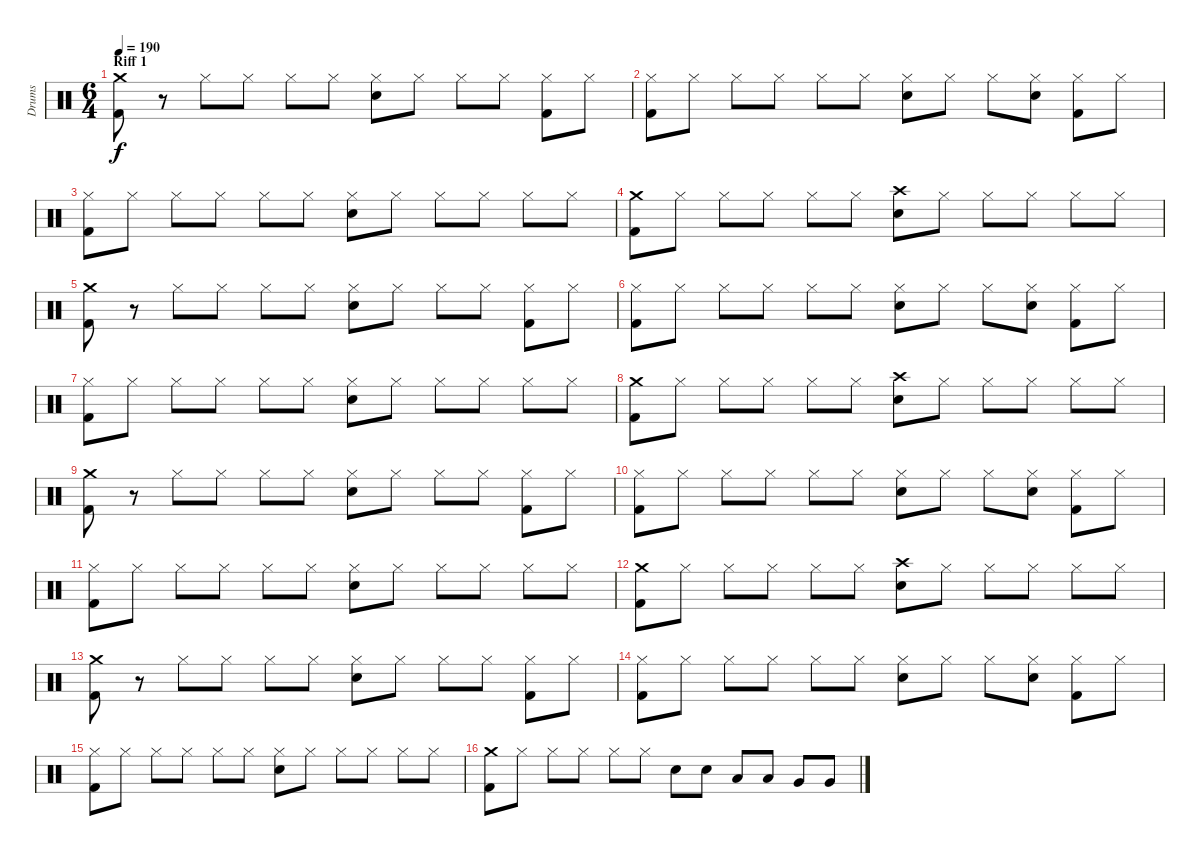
\track ("Drums" "Drums") {instrument percussion}
\staff {score}
\articulation defaults
\ts (6 4)
\section ("" "Riff 1")
\tempo 190
\clef neutral
\ks c
("Crash medium (hit)" "Kick (hit) 2").8{dy f} r.8 "Hi-Hat (closed)".8 "Hi-Hat (closed)".8 "Hi-Hat (closed)".8 "Hi-Hat (closed)".8 ("Hi-Hat (closed)" "Electric Snare (hit)").8 "Hi-Hat (closed)".8 "Hi-Hat (closed)".8 "Hi-Hat (closed)".8 ("Hi-Hat (closed)" "Kick (hit) 2").8 "Hi-Hat (closed)".8 |
("Hi-Hat (closed)" "Kick (hit) 2").8 "Hi-Hat (closed)".8 "Hi-Hat (closed)".8 "Hi-Hat (closed)".8 "Hi-Hat (closed)".8 "Hi-Hat (closed)".8 ("Hi-Hat (closed)" "Electric Snare (hit)").8 "Hi-Hat (closed)".8 "Hi-Hat (closed)".8 ("Hi-Hat (closed)" "Electric Snare (hit)").8 ("Hi-Hat (closed)" "Kick (hit) 2").8 "Hi-Hat (closed)".8 |
("Hi-Hat (closed)" "Kick (hit) 2").8 "Hi-Hat (closed)".8 "Hi-Hat (closed)".8 "Hi-Hat (closed)".8 "Hi-Hat (closed)".8 "Hi-Hat (closed)".8 ("Hi-Hat (closed)" "Electric Snare (hit)").8 "Hi-Hat (closed)".8 "Hi-Hat (closed)".8 "Hi-Hat (closed)".8 "Hi-Hat (closed)".8 "Hi-Hat (closed)".8 |
("Crash medium (hit)" "Kick (hit) 2").8 "Hi-Hat (closed)".8 "Hi-Hat (closed)".8 "Hi-Hat (closed)".8 "Hi-Hat (closed)".8 "Hi-Hat (closed)".8 ("Crash high (hit)" "Electric Snare (hit)").8 "Hi-Hat (closed)".8 "Hi-Hat (closed)".8 "Hi-Hat (closed)".8 "Hi-Hat (closed)".8 "Hi-Hat (closed)".8 |
("Crash medium (hit)" "Kick (hit) 2").8 r.8 "Hi-Hat (closed)".8 "Hi-Hat (closed)".8 "Hi-Hat (closed)".8 "Hi-Hat (closed)".8 ("Hi-Hat (closed)" "Electric Snare (hit)").8 "Hi-Hat (closed)".8 "Hi-Hat (closed)".8 "Hi-Hat (closed)".8 ("Hi-Hat (closed)" "Kick (hit) 2").8 "Hi-Hat (closed)".8 |
("Hi-Hat (closed)" "Kick (hit) 2").8 "Hi-Hat (closed)".8 "Hi-Hat (closed)".8 "Hi-Hat (closed)".8 "Hi-Hat (closed)".8 "Hi-Hat (closed)".8 ("Hi-Hat (closed)" "Electric Snare (hit)").8 "Hi-Hat (closed)".8 "Hi-Hat (closed)".8 ("Hi-Hat (closed)" "Electric Snare (hit)").8 ("Hi-Hat (closed)" "Kick (hit) 2").8 "Hi-Hat (closed)".8 |
("Hi-Hat (closed)" "Kick (hit) 2").8 "Hi-Hat (closed)".8 "Hi-Hat (closed)".8 "Hi-Hat (closed)".8 "Hi-Hat (closed)".8 "Hi-Hat (closed)".8 ("Hi-Hat (closed)" "Electric Snare (hit)").8 "Hi-Hat (closed)".8 "Hi-Hat (closed)".8 "Hi-Hat (closed)".8 "Hi-Hat (closed)".8 "Hi-Hat (closed)".8 |
("Crash medium (hit)" "Kick (hit) 2").8 "Hi-Hat (closed)".8 "Hi-Hat (closed)".8 "Hi-Hat (closed)".8 "Hi-Hat (closed)".8 "Hi-Hat (closed)".8 ("Crash high (hit)" "Electric Snare (hit)").8 "Hi-Hat (closed)".8 "Hi-Hat (closed)".8 "Hi-Hat (closed)".8 "Hi-Hat (closed)".8 "Hi-Hat (closed)".8 |
("Crash medium (hit)" "Kick (hit) 2").8 r.8 "Hi-Hat (closed)".8 "Hi-Hat (closed)".8 "Hi-Hat (closed)".8 "Hi-Hat (closed)".8 ("Hi-Hat (closed)" "Electric Snare (hit)").8 "Hi-Hat (closed)".8 "Hi-Hat (closed)".8 "Hi-Hat (closed)".8 ("Hi-Hat (closed)" "Kick (hit) 2").8 "Hi-Hat (closed)".8 |
("Hi-Hat (closed)" "Kick (hit) 2").8 "Hi-Hat (closed)".8 "Hi-Hat (closed)".8 "Hi-Hat (closed)".8 "Hi-Hat (closed)".8 "Hi-Hat (closed)".8 ("Hi-Hat (closed)" "Electric Snare (hit)").8 "Hi-Hat (closed)".8 "Hi-Hat (closed)".8 ("Hi-Hat (closed)" "Electric Snare (hit)").8 ("Hi-Hat (closed)" "Kick (hit) 2").8 "Hi-Hat (closed)".8 |
("Hi-Hat (closed)" "Kick (hit) 2").8 "Hi-Hat (closed)".8 "Hi-Hat (closed)".8 "Hi-Hat (closed)".8 "Hi-Hat (closed)".8 "Hi-Hat (closed)".8 ("Hi-Hat (closed)" "Electric Snare (hit)").8 "Hi-Hat (closed)".8 "Hi-Hat (closed)".8 "Hi-Hat (closed)".8 "Hi-Hat (closed)".8 "Hi-Hat (closed)".8 |
("Crash medium (hit)" "Kick (hit) 2").8 "Hi-Hat (closed)".8 "Hi-Hat (closed)".8 "Hi-Hat (closed)".8 "Hi-Hat (closed)".8 "Hi-Hat (closed)".8 ("Crash high (hit)" "Electric Snare (hit)").8 "Hi-Hat (closed)".8 "Hi-Hat (closed)".8 "Hi-Hat (closed)".8 "Hi-Hat (closed)".8 "Hi-Hat (closed)".8 |
("Crash medium (hit)" "Kick (hit) 2").8 r.8 "Hi-Hat (closed)".8 "Hi-Hat (closed)".8 "Hi-Hat (closed)".8 "Hi-Hat (closed)".8 ("Hi-Hat (closed)" "Electric Snare (hit)").8 "Hi-Hat (closed)".8 "Hi-Hat (closed)".8 "Hi-Hat (closed)".8 ("Hi-Hat (closed)" "Kick (hit) 2").8 "Hi-Hat (closed)".8 |
("Hi-Hat (closed)" "Kick (hit) 2").8 "Hi-Hat (closed)".8 "Hi-Hat (closed)".8 "Hi-Hat (closed)".8 "Hi-Hat (closed)".8 "Hi-Hat (closed)".8 ("Hi-Hat (closed)" "Electric Snare (hit)").8 "Hi-Hat (closed)".8 "Hi-Hat (closed)".8 ("Hi-Hat (closed)" "Electric Snare (hit)").8 ("Hi-Hat (closed)" "Kick (hit) 2").8 "Hi-Hat (closed)".8 |
("Hi-Hat (closed)" "Kick (hit) 2").8 "Hi-Hat (closed)".8 "Hi-Hat (closed)".8 "Hi-Hat (closed)".8 "Hi-Hat (closed)".8 "Hi-Hat (closed)".8 ("Hi-Hat (closed)" "Electric Snare (hit)").8 "Hi-Hat (closed)".8 "Hi-Hat (closed)".8 "Hi-Hat (closed)".8 "Hi-Hat (closed)".8 "Hi-Hat (closed)".8 |
("Crash medium (hit)" "Kick (hit) 2").8 "Hi-Hat (closed)".8 "Hi-Hat (closed)".8 "Hi-Hat (closed)".8 "Hi-Hat (closed)".8 "Hi-Hat (closed)".8 "Electric Snare (hit)".8 "Electric Snare (hit)".8 "Low Tom (hit)".8 "Low Tom (hit)".8 "Very Low Tom (hit)".8 "Very Low Tom (hit)".8
